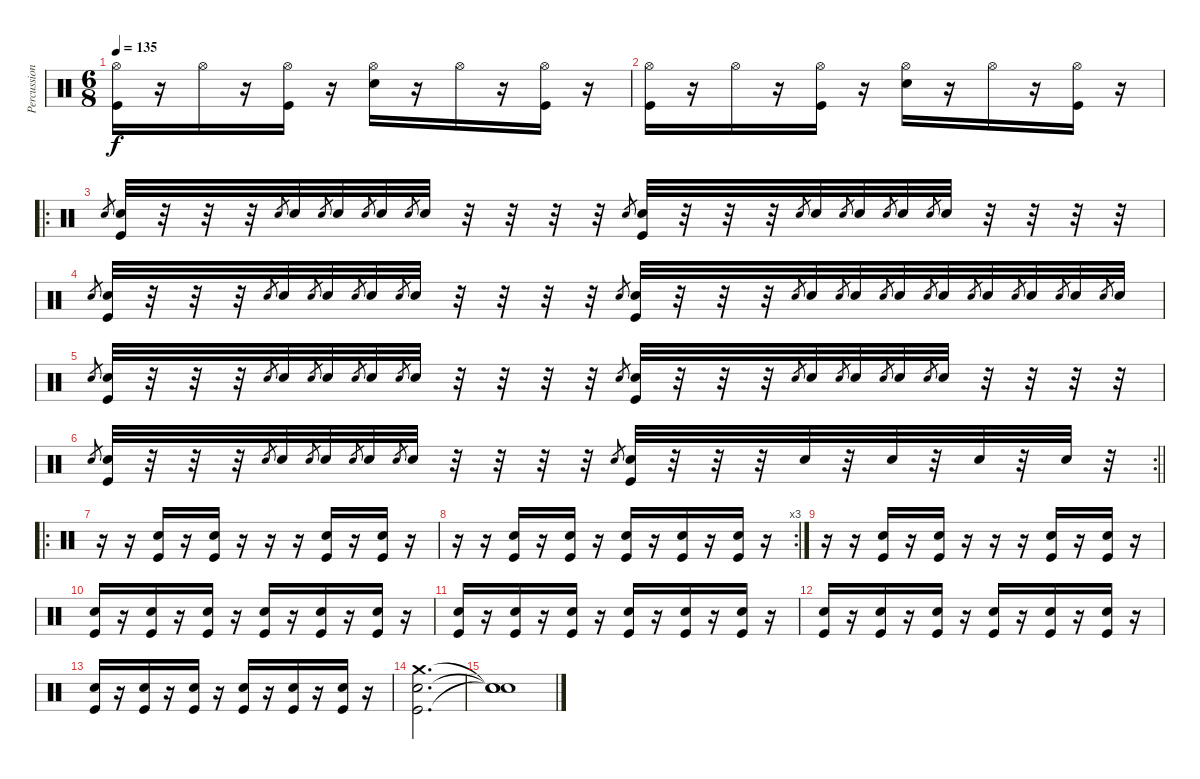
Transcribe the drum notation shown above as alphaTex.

\track ("Percussion" "Percussion") {instrument percussion}
\staff {score}
\articulation defaults
\ts (6 8)
\tempo 135
\clef neutral
\ks c
("Hi-Hat (open)" "Kick (hit)").16{dy f} r.16 "Hi-Hat (open)".16 r.16 ("Hi-Hat (open)" "Kick (hit)").16 r.16 ("Hi-Hat (open)" "Snare (hit) 2").16 r.16 "Hi-Hat (open)".16 r.16 ("Hi-Hat (open)" "Kick (hit)").16 r.16 |
("Hi-Hat (open)" "Kick (hit)").16 r.16 "Hi-Hat (open)".16 r.16 ("Hi-Hat (open)" "Kick (hit)").16 r.16 ("Hi-Hat (open)" "Snare (hit) 2").16 r.16 "Hi-Hat (open)".16 r.16 ("Hi-Hat (open)" "Kick (hit)").16 r.16 |
\ro "Snare (hit) 2".8{gr}
("Snare (hit) 2" "Kick (hit)").32{volume 8} r.32 r.32 r.32 "Snare (hit) 2".8{gr} "Snare (hit) 2".32 "Snare (hit) 2".8{gr} "Snare (hit) 2".32 "Snare (hit) 2".8{gr} "Snare (hit) 2".32 "Snare (hit) 2".8{gr} "Snare (hit) 2".32 r.32 r.32 r.32 r.32 "Snare (hit) 2".8{gr} ("Snare (hit) 2" "Kick (hit)").32 r.32 r.32 r.32 "Snare (hit) 2".8{gr} "Snare (hit) 2".32 "Snare (hit) 2".8{gr} "Snare (hit) 2".32 "Snare (hit) 2".8{gr} "Snare (hit) 2".32 "Snare (hit) 2".8{gr} "Snare (hit) 2".32 r.32 r.32 r.32 r.32 |
"Snare (hit) 2".8{gr} ("Snare (hit) 2" "Kick (hit)").32 r.32 r.32 r.32 "Snare (hit) 2".8{gr} "Snare (hit) 2".32 "Snare (hit) 2".8{gr} "Snare (hit) 2".32 "Snare (hit) 2".8{gr} "Snare (hit) 2".32 "Snare (hit) 2".8{gr} "Snare (hit) 2".32 r.32 r.32 r.32 r.32 "Snare (hit) 2".8{gr} ("Snare (hit) 2" "Kick (hit)").32 r.32 r.32 r.32 "Snare (hit) 2".8{gr} "Snare (hit) 2".32 "Snare (hit) 2".8{gr} "Snare (hit) 2".32 "Snare (hit) 2".8{gr} "Snare (hit) 2".32 "Snare (hit) 2".8{gr} "Snare (hit) 2".32 "Snare (hit) 2".8{gr} "Snare (hit)".32 "Snare (hit) 2".8{gr} "Snare (hit) 2".32 "Snare (hit) 2".8{gr} "Snare (hit) 2".32 "Snare (hit) 2".8{gr} "Snare (hit) 2".32 |
"Snare (hit) 2".8{gr} ("Snare (hit) 2" "Kick (hit)").32 r.32 r.32 r.32 "Snare (hit) 2".8{gr} "Snare (hit) 2".32 "Snare (hit) 2".8{gr} "Snare (hit) 2".32 "Snare (hit) 2".8{gr} "Snare (hit) 2".32 "Snare (hit) 2".8{gr} "Snare (hit) 2".32 r.32 r.32 r.32 r.32 "Snare (hit) 2".8{gr} ("Snare (hit) 2" "Kick (hit)").32 r.32 r.32 r.32 "Snare (hit) 2".8{gr} "Snare (hit) 2".32 "Snare (hit) 2".8{gr} "Snare (hit) 2".32 "Snare (hit) 2".8{gr} "Snare (hit) 2".32 "Snare (hit) 2".8{gr} "Snare (hit) 2".32 r.32 r.32 r.32 r.32 |
\rc 2
\barLineRight lightlight "Snare (hit) 2".8{gr}
("Snare (hit) 2" "Kick (hit)").32 r.32 r.32 r.32 "Snare (hit) 2".8{gr} "Snare (hit) 2".32 "Snare (hit) 2".8{gr} "Snare (hit) 2".32 "Snare (hit) 2".8{gr} "Snare (hit) 2".32 "Snare (hit) 2".8{gr} "Snare (hit) 2".32 r.32 r.32 r.32 r.32 "Snare (hit) 2".8{gr} ("Snare (hit) 2" "Kick (hit)").32 r.32 r.32 r.32 "Snare (hit) 2".32 r.32 "Snare (hit) 2".32 r.32 "Snare (hit) 2".32 r.32 "Snare (hit) 2".32 r.32 |
\ro
r.16{volume 13} r.16 ("Snare (hit) 2" "Kick (hit)").16 r.16 ("Snare (hit) 2" "Kick (hit)").16 r.16 r.16 r.16 ("Snare (hit) 2" "Kick (hit)").16 r.16 ("Snare (hit) 2" "Kick (hit)").16 r.16 |
\rc 3
r.16 r.16 ("Snare (hit) 2" "Kick (hit)").16 r.16 ("Snare (hit) 2" "Kick (hit)").16 r.16 ("Snare (hit) 2" "Kick (hit)").16 r.16 ("Snare (hit) 2" "Kick (hit)").16 r.16 ("Snare (hit) 2" "Kick (hit)").16 r.16 |
r.16{volume 13} r.16 ("Snare (hit) 2" "Kick (hit)").16 r.16 ("Snare (hit) 2" "Kick (hit)").16 r.16 r.16 r.16 ("Snare (hit) 2" "Kick (hit)").16 r.16 ("Snare (hit) 2" "Kick (hit)").16 r.16 |
("Snare (hit) 2" "Kick (hit)").16{volume 5} r.16{volume 13} ("Snare (hit) 2" "Kick (hit)").16 r.16 ("Snare (hit) 2" "Kick (hit)").16 r.16 ("Snare (hit) 2" "Kick (hit)").16 r.16 ("Snare (hit) 2" "Kick (hit)").16 r.16 ("Snare (hit) 2" "Kick (hit)").16 r.16 |
("Snare (hit) 2" "Kick (hit)").16 r.16 ("Snare (hit) 2" "Kick (hit)").16 r.16 ("Snare (hit) 2" "Kick (hit)").16 r.16 ("Snare (hit) 2" "Kick (hit)").16 r.16 ("Snare (hit) 2" "Kick (hit)").16 r.16 ("Snare (hit) 2" "Kick (hit)").16 r.16 |
("Snare (hit) 2" "Kick (hit)").16 r.16 ("Snare (hit) 2" "Kick (hit)").16 r.16 ("Snare (hit) 2" "Kick (hit)").16 r.16 ("Snare (hit) 2" "Kick (hit)").16 r.16 ("Snare (hit) 2" "Kick (hit)").16 r.16 ("Snare (hit) 2" "Kick (hit)").16 r.16 |
("Snare (hit) 2" "Kick (hit)").16 r.16 ("Snare (hit) 2" "Kick (hit)").16 r.16 ("Snare (hit) 2" "Kick (hit)").16 r.16 ("Snare (hit) 2" "Kick (hit)").16 r.16 ("Snare (hit) 2" "Kick (hit)").16 r.16 ("Snare (hit) 2" "Kick (hit)").16 r.16 |
("Crash medium (hit)" "Snare (hit) 2" "Kick (hit)").2{d} |
("Snare (hit)"{t} "Snare (hit)"{t} "Snare (hit)"{t}).1
